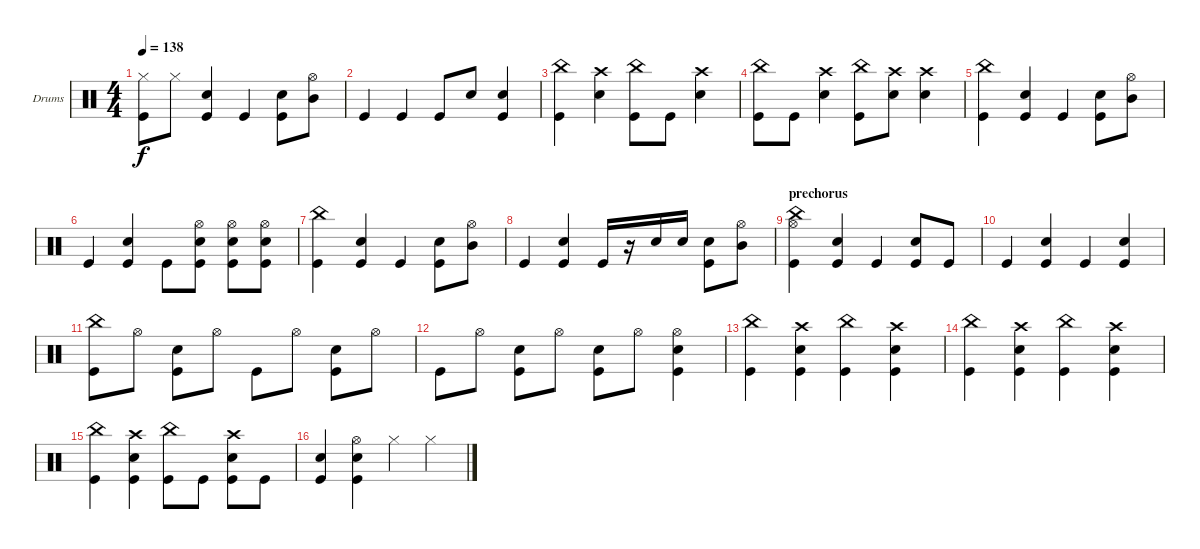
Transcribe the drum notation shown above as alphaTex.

\bracketExtendMode groupsimilarinstruments
\firstSystemTrackNameOrientation horizontal
\otherSystemsTrackNameOrientation horizontal
\track ("Drumkit" "Drums") {instrument percussion}
\staff {score}
\articulation defaults
\ts (4 4)
\tempo 138
\clef neutral
\ks c
("Hi-Hat (closed)" "Kick (hit)").8{dy f} "Hi-Hat (closed)".8 ("Snare (hit) 2" "Kick (hit)").4 "Kick (hit)".4 ("Snare (hit) 2" "Kick (hit)").8 ("Hi-Hat (open)" "Mid Tom (hit)").8 |
"Kick (hit)".4 "Kick (hit)".4 "Kick (hit)".8 "Snare (hit) 2".8 ("Snare (hit) 2" "Kick (hit)").4 |
("China (hit)" "Kick (hit)").4 ("Crash high (hit)" "Snare (hit) 2").4 ("China (hit)" "Kick (hit)").8 "Kick (hit)".8 ("Crash high (hit)" "Snare (hit) 2").4 |
("China (hit)" "Kick (hit)").8 "Kick (hit)".8 ("Crash high (hit)" "Snare (hit) 2").4 ("China (hit)" "Kick (hit)").8 ("Crash high (hit)" "Snare (hit) 2").8 ("Crash high (hit)" "Snare (hit) 2").4 |
("China (hit)" "Kick (hit)").4 ("Snare (hit) 2" "Kick (hit)").4 "Kick (hit)".4 ("Snare (hit) 2" "Kick (hit)").8 ("Hi-Hat (open)" "Mid Tom (hit)").8 |
"Kick (hit)".4 ("Snare (hit) 2" "Kick (hit)").4 "Kick (hit)".8 ("Hi-Hat (open)" "Snare (hit) 2" "Kick (hit)").8 ("Hi-Hat (open)" "Snare (hit) 2" "Kick (hit)").8 ("Hi-Hat (open)" "Snare (hit) 2" "Kick (hit)").8 |
("China (hit)" "Kick (hit)").4 ("Snare (hit) 2" "Kick (hit)").4 "Kick (hit)".4 ("Snare (hit) 2" "Kick (hit)").8 ("Hi-Hat (open)" "Mid Tom (hit)").8 |
"Kick (hit)".4 ("Snare (hit) 2" "Kick (hit)").4 "Kick (hit)".16 r.16 "Snare (hit) 2".16 "Snare (hit) 2".16 ("Snare (hit) 2" "Kick (hit)").8 ("Hi-Hat (open)" "Mid Tom (hit)").8 |
\section ("" "prechorus")
("China (hit)" "Hi-Hat (open)" "Kick (hit)").4 ("Snare (hit) 2" "Kick (hit)").4 "Kick (hit)".4 ("Snare (hit) 2" "Kick (hit)").8 "Kick (hit)".8 |
"Kick (hit)".4 ("Snare (hit) 2" "Kick (hit)").4 "Kick (hit)".4 ("Snare (hit) 2" "Kick (hit)").4 |
("China (hit)" "Kick (hit)").8 "Hi-Hat (open)".8 ("Snare (hit) 2" "Kick (hit)").8 "Hi-Hat (open)".8 "Kick (hit)".8 "Hi-Hat (open)".8 ("Snare (hit) 2" "Kick (hit)").8 "Hi-Hat (open)".8 |
"Kick (hit)".8 "Hi-Hat (open)".8 ("Snare (hit) 2" "Kick (hit)").8 "Hi-Hat (open)".8 ("Snare (hit) 2" "Kick (hit)").8 "Hi-Hat (open)".8 ("Hi-Hat (open)" "Snare (hit) 2" "Kick (hit)").4 |
("China (hit)" "Kick (hit)").4 ("Crash high (hit)" "Snare (hit) 2" "Kick (hit)").4 ("China (hit)" "Kick (hit)").4 ("Crash high (hit)" "Snare (hit) 2" "Kick (hit)").4 |
("China (hit)" "Kick (hit)").4 ("Crash high (hit)" "Snare (hit) 2" "Kick (hit)").4 ("China (hit)" "Kick (hit)").4 ("Crash high (hit)" "Snare (hit) 2" "Kick (hit)").4 |
("China (hit)" "Kick (hit)").4 ("Crash high (hit)" "Snare (hit) 2" "Kick (hit)").4 ("China (hit)" "Kick (hit)").8 "Kick (hit)".8 ("Crash high (hit)" "Snare (hit) 2" "Kick (hit)").8 "Kick (hit)".8 |
("Snare (hit) 2" "Kick (hit)").4 ("Hi-Hat (open)" "Snare (hit) 2" "Kick (hit)").4 "Hi-Hat (closed)".4 "Hi-Hat (closed)".4
